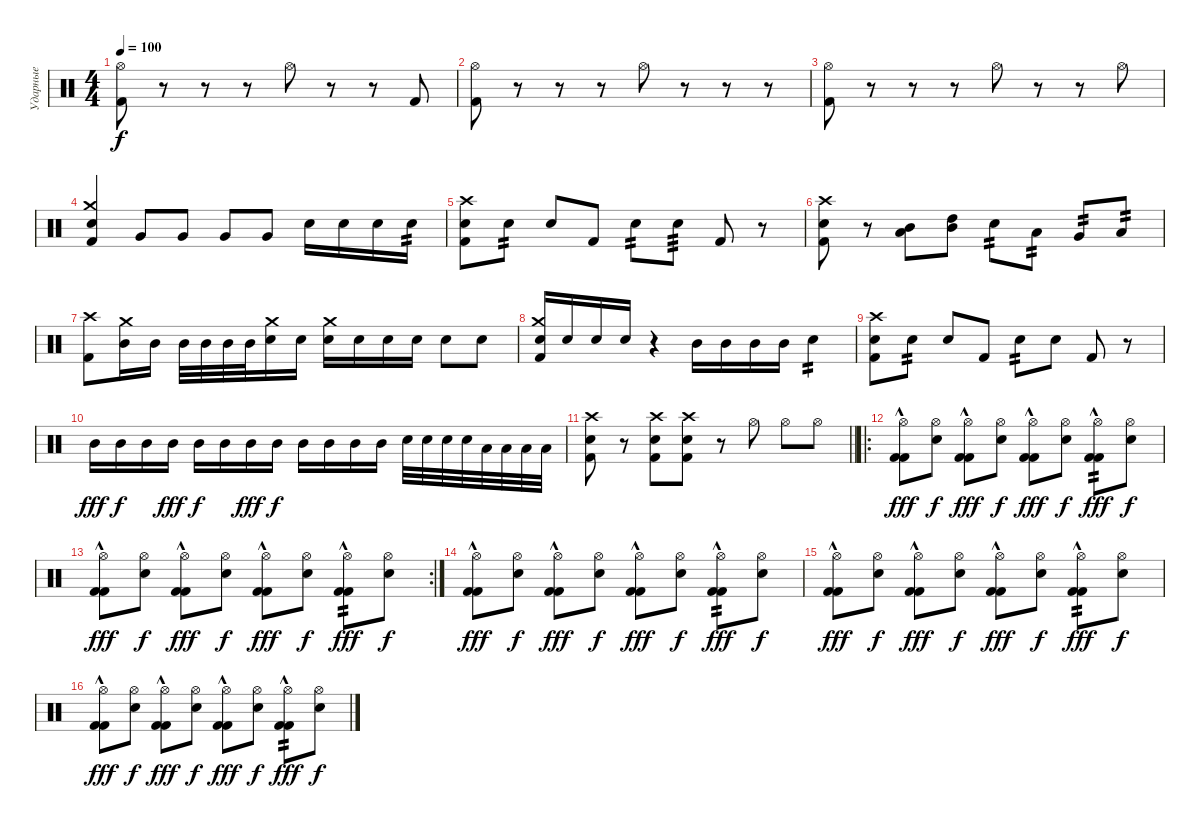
\track ("Ударные" "Ударные") {instrument percussion}
\staff {score}
\articulation defaults
\ts (4 4)
\tempo 100
\clef neutral
\ks c
("Kick (hit) 2" "Hi-Hat (open)").8{dy f} r.8 r.8 r.8 "Hi-Hat (open)".8 r.8 r.8 "Kick (hit) 2".8 |
("Kick (hit) 2" "Hi-Hat (open)").8 r.8 r.8 r.8 "Hi-Hat (open)".8 r.8 r.8 r.8 |
("Kick (hit) 2" "Hi-Hat (open)").8 r.8 r.8 r.8 "Hi-Hat (open)".8 r.8 r.8 "Hi-Hat (open)".8 |
("Crash medium (hit)" "Electric Snare (hit)" "Kick (hit) 2").4 "Very Low Tom (hit)".8 "Very Low Tom (hit)".8 "Very Low Tom (hit)".8 "Very Low Tom (hit)".8 "Snare (hit) 2".16 "Snare (hit) 2".16 "Snare (hit) 2".16 "Snare (hit) 2".16{tp 2} |
("Kick (hit) 2" "Snare (hit) 2" "Crash high (hit)").8 "Electric Snare (hit)".8{tp 2} "Electric Snare (hit)".8 "Kick (hit) 2".8 "Electric Snare (hit)".8{tp 2} "Electric Snare (hit)".8{tp 3} "Kick (hit) 2".8 r.8 |
("Kick (hit) 2" "Snare (hit) 2" "Crash high (hit)").8 r.8 ("Mid Tom (hit)" "Low Tom (hit)").8 ("High Tom (hit)" "Mid Tom (hit)").8 "Electric Snare (hit)".8{tp 2} "Low Floor Tom (hit)".8{tp 2} "Very Low Tom (hit)".8{tp 2} "Low Tom (hit)".8{tp 2} |
("Crash high (hit)" "Kick (hit) 2").8 ("Crash medium (hit)" "Mid Tom (hit)").16 "Mid Tom (hit)".16 "Mid Tom (hit)".32 "Mid Tom (hit)".32 "Mid Tom (hit)".32 "Mid Tom (hit)".32 ("Crash medium (hit)" "Snare (hit) 2").16 "Snare (hit) 2".16 ("Crash medium (hit)" "Snare (hit) 2").16 "Snare (hit) 2".16 "Snare (hit) 2".16 "Snare (hit) 2".16 "Snare (hit) 2".8 "Snare (hit) 2".8 |
("Crash medium (hit)" "Snare (hit) 2" "Kick (hit) 2").16 "Snare (hit) 2".16 "Snare (hit) 2".16 "Snare (hit) 2".16 r.4 "Mid Tom (hit)".16 "Mid Tom (hit)".16 "Mid Tom (hit)".16 "Mid Tom (hit)".16 "Electric Snare (hit)".4{tp 2} |
("Kick (hit) 2" "Snare (hit) 2" "Crash high (hit)").8 "Electric Snare (hit)".8{tp 2} "Electric Snare (hit)".8 "Kick (hit) 2".8 "Electric Snare (hit)".8{tp 2} "Electric Snare (hit)".8 "Kick (hit) 2".8 r.8 |
"Mid Tom (hit)".16{dy fff} "Mid Tom (hit)".16{dy f} "Mid Tom (hit)".16 "Mid Tom (hit)".16{dy fff} "Mid Tom (hit)".16{dy f} "Mid Tom (hit)".16 "Mid Tom (hit)".16{dy fff} "Mid Tom (hit)".16{dy f} "Mid Tom (hit)".16 "Mid Tom (hit)".16 "Mid Tom (hit)".16 "Mid Tom (hit)".16 "Snare (hit) 2".32 "Snare (hit) 2".32 "Snare (hit) 2".32 "Snare (hit) 2".32 "Low Tom (hit)".32 "Low Tom (hit)".32 "Low Tom (hit)".32 "Low Tom (hit)".32 |
\barLineRight lightlight
("Kick (hit) 2" "Snare (hit) 2" "Crash high (hit)").8 r.8 ("Kick (hit) 2" "Snare (hit) 2" "Crash high (hit)").8 ("Kick (hit) 2" "Snare (hit) 2" "Crash high (hit)").8 r.8 "Hi-Hat (open)".8 "Hi-Hat (open)".8 "Hi-Hat (open)".8 |
\ro
("Hi-Hat (open)" "Kick (hit) 2"{hac} "Kick (hit) 2").8{dy fff} ("Hi-Hat (open)" "Electric Snare (hit)").8{dy f} ("Hi-Hat (open)" "Kick (hit) 2"{hac} "Kick (hit) 2").8{dy fff} ("Hi-Hat (open)" "Electric Snare (hit)").8{dy f} ("Hi-Hat (open)" "Kick (hit) 2"{hac} "Kick (hit) 2").8{dy fff} ("Hi-Hat (open)" "Electric Snare (hit)").8{dy f} ("Hi-Hat (open)" "Kick (hit) 2"{hac} "Kick (hit) 2").8{tp 2 dy fff} ("Hi-Hat (open)" "Electric Snare (hit)").8{dy f} |
\rc 2
("Hi-Hat (open)" "Kick (hit) 2"{hac} "Kick (hit) 2").8{dy fff} ("Hi-Hat (open)" "Electric Snare (hit)").8{dy f} ("Hi-Hat (open)" "Kick (hit) 2"{hac} "Kick (hit) 2").8{dy fff} ("Hi-Hat (open)" "Electric Snare (hit)").8{dy f} ("Hi-Hat (open)" "Kick (hit) 2"{hac} "Kick (hit) 2").8{dy fff} ("Hi-Hat (open)" "Electric Snare (hit)").8{dy f} ("Hi-Hat (open)" "Kick (hit) 2"{hac} "Kick (hit) 2").8{tp 2 dy fff} ("Hi-Hat (open)" "Electric Snare (hit)").8{dy f} |
("Hi-Hat (open)" "Kick (hit) 2"{hac} "Kick (hit) 2").8{dy fff} ("Hi-Hat (open)" "Electric Snare (hit)").8{dy f} ("Hi-Hat (open)" "Kick (hit) 2"{hac} "Kick (hit) 2").8{dy fff} ("Hi-Hat (open)" "Electric Snare (hit)").8{dy f} ("Hi-Hat (open)" "Kick (hit) 2"{hac} "Kick (hit) 2").8{dy fff} ("Hi-Hat (open)" "Electric Snare (hit)").8{dy f} ("Hi-Hat (open)" "Kick (hit) 2"{hac} "Kick (hit) 2").8{tp 2 dy fff} ("Hi-Hat (open)" "Electric Snare (hit)").8{dy f} |
("Hi-Hat (open)" "Kick (hit) 2"{hac} "Kick (hit) 2").8{dy fff} ("Hi-Hat (open)" "Electric Snare (hit)").8{dy f} ("Hi-Hat (open)" "Kick (hit) 2"{hac} "Kick (hit) 2").8{dy fff} ("Hi-Hat (open)" "Electric Snare (hit)").8{dy f} ("Hi-Hat (open)" "Kick (hit) 2"{hac} "Kick (hit) 2").8{dy fff} ("Hi-Hat (open)" "Electric Snare (hit)").8{dy f} ("Hi-Hat (open)" "Kick (hit) 2"{hac} "Kick (hit) 2").8{tp 2 dy fff} ("Hi-Hat (open)" "Electric Snare (hit)").8{dy f} |
("Hi-Hat (open)" "Kick (hit) 2"{hac} "Kick (hit) 2").8{dy fff} ("Hi-Hat (open)" "Electric Snare (hit)").8{dy f} ("Hi-Hat (open)" "Kick (hit) 2"{hac} "Kick (hit) 2").8{dy fff} ("Hi-Hat (open)" "Electric Snare (hit)").8{dy f} ("Hi-Hat (open)" "Kick (hit) 2"{hac} "Kick (hit) 2").8{dy fff} ("Hi-Hat (open)" "Electric Snare (hit)").8{dy f} ("Hi-Hat (open)" "Kick (hit) 2"{hac} "Kick (hit) 2").8{tp 2 dy fff} ("Hi-Hat (open)" "Electric Snare (hit)").8{dy f}
